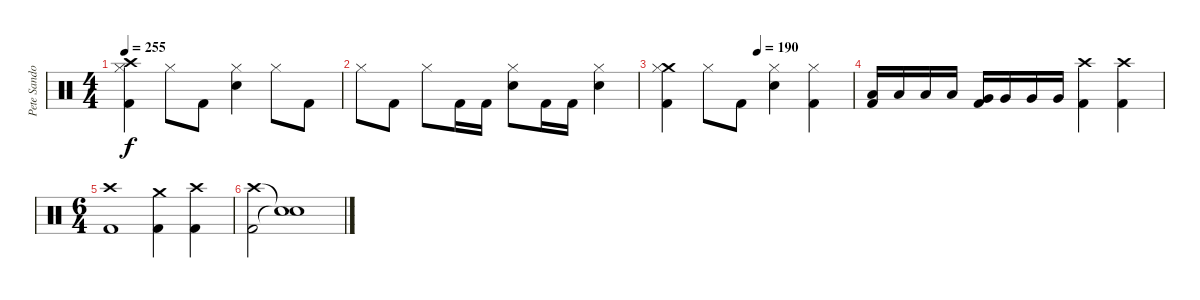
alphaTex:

\track ("Pete Sandoval" "Pete Sando") {instrument percussion}
\staff {score}
\articulation defaults
\ts (4 4)
\tempo 255
\clef neutral
\ks c
("Crash high (hit)" "Hi-Hat (closed)" "Kick (hit) 2").4{dy f} "Hi-Hat (closed)".8 "Kick (hit) 2".8 ("Hi-Hat (closed)" "Electric Snare (hit)").4 "Hi-Hat (closed)".8 "Kick (hit) 2".8 |
"Hi-Hat (closed)".8 "Kick (hit) 2".8 "Hi-Hat (closed)".8 "Kick (hit) 2".16 "Kick (hit) 2".16 ("Hi-Hat (closed)" "Electric Snare (hit)").8 "Kick (hit) 2".16 "Kick (hit) 2".16 ("Hi-Hat (closed)" "Electric Snare (hit)").4 |
\tempo (190 0.5)
("Crash medium (hit)" "Hi-Hat (closed)" "Kick (hit) 2").4 "Hi-Hat (closed)".8 "Kick (hit) 2".8 ("Hi-Hat (closed)" "Electric Snare (hit)").4 ("Hi-Hat (closed)" "Kick (hit) 2").4 |
("Low Tom (hit)" "Kick (hit) 2").16 "Low Tom (hit)".16 "Low Tom (hit)".16 "Low Tom (hit)".16 ("Very Low Tom (hit)" "Kick (hit) 2").16 "Very Low Tom (hit)".16 "Very Low Tom (hit)".16 "Very Low Tom (hit)".16 ("Crash high (hit)" "Kick (hit) 2").4 ("Crash high (hit)" "Kick (hit) 2").4 |
\ts (6 4)
("Crash high (hit)" "Kick (hit) 2").1 ("Crash medium (hit)" "Kick (hit) 2").4 ("Crash high (hit)" "Kick (hit) 2").4 |
("Crash high (hit)" "Kick (hit) 2").2 ("Snare (hit)"{t} "Snare (hit)"{t}).1
